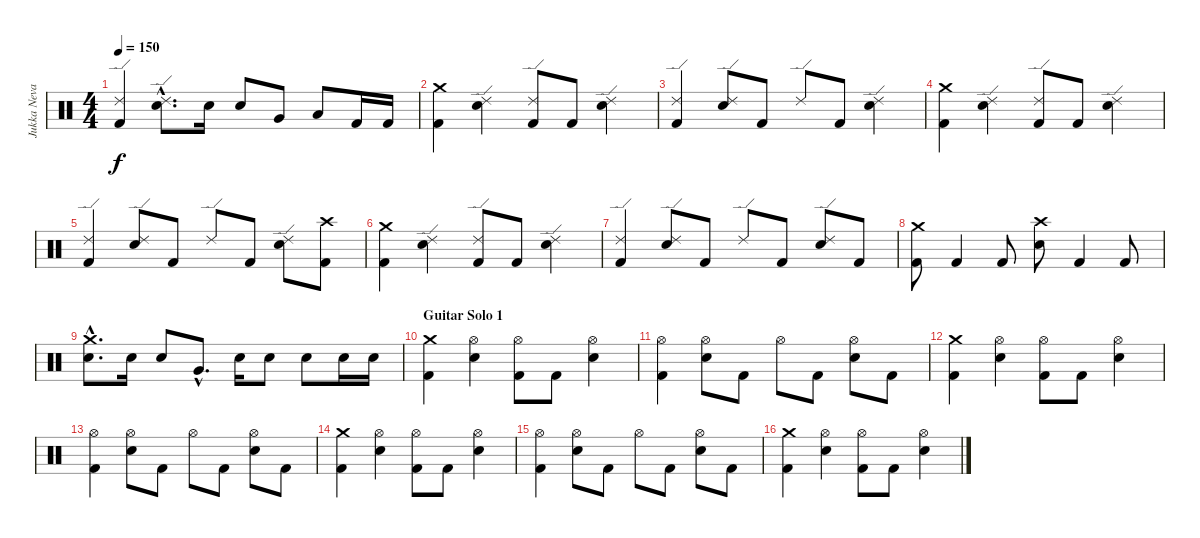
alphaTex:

\track ("Jukka Nevalainen" "Jukka Neva") {instrument percussion}
\staff {score}
\articulation defaults
\ts (4 4)
\tempo 150
\clef neutral
\ks c
("Ride (edge) 2" "Kick (hit) 2").4{dy f} ("Ride (edge) 2"{hac} "Electric Snare (hit)"{hac}).8{d} "Electric Snare (hit)".16 "Electric Snare (hit)".8 "Very Low Tom (hit)".8 "Low Floor Tom (hit)".8 "Kick (hit) 2".16 "Kick (hit) 2".16 |
("Crash medium (hit)" "Kick (hit) 2").4 ("Ride (edge) 2" "Electric Snare (hit)").4 ("Ride (edge) 2" "Kick (hit) 2").8 "Kick (hit) 2".8 ("Ride (edge) 2" "Electric Snare (hit)").4 |
("Ride (edge) 2" "Kick (hit) 2").4 ("Ride (edge) 2" "Electric Snare (hit)").8 "Kick (hit) 2".8 "Ride (edge) 2".8 "Kick (hit) 2".8 ("Ride (edge) 2" "Electric Snare (hit)").4 |
("Crash medium (hit)" "Kick (hit) 2").4 ("Ride (edge) 2" "Electric Snare (hit)").4 ("Ride (edge) 2" "Kick (hit) 2").8 "Kick (hit) 2".8 ("Ride (edge) 2" "Electric Snare (hit)").4 |
("Ride (edge) 2" "Kick (hit) 2").4 ("Ride (edge) 2" "Electric Snare (hit)").8 "Kick (hit) 2".8 "Ride (edge) 2".8 "Kick (hit) 2".8 ("Ride (edge) 2" "Electric Snare (hit)").8 ("Crash high (hit)" "Kick (hit) 2").8 |
("Crash medium (hit)" "Kick (hit) 2").4 ("Ride (edge) 2" "Electric Snare (hit)").4 ("Ride (edge) 2" "Kick (hit) 2").8 "Kick (hit) 2".8 ("Ride (edge) 2" "Electric Snare (hit)").4 |
("Ride (edge) 2" "Kick (hit) 2").4 ("Ride (edge) 2" "Electric Snare (hit)").8 "Kick (hit) 2".8 "Ride (edge) 2".8 "Kick (hit) 2".8 ("Ride (edge) 2" "Electric Snare (hit)").8 "Kick (hit) 2".8 |
("Crash medium (hit)" "Kick (hit) 2").8 "Kick (hit) 2".4 "Kick (hit) 2".8 ("Crash high (hit)" "Electric Snare (hit)").8 "Kick (hit) 2".4 "Kick (hit) 2".8 |
("Crash medium (hit)"{hac} "Electric Snare (hit)"{hac}).8{d} "Electric Snare (hit)".16 "Electric Snare (hit)".8 "Very Low Tom (hit)"{hac}.8{d} "Electric Snare (hit)".16 "Electric Snare (hit)".8 "Electric Snare (hit)".8 "Electric Snare (hit)".16 "Electric Snare (hit)".16 |
\section ("" "Guitar Solo 1")
("Crash medium (hit)" "Kick (hit) 2").4 ("Hi-Hat (open)" "Electric Snare (hit)").4 ("Hi-Hat (open)" "Kick (hit) 2").8 "Kick (hit) 2".8 ("Hi-Hat (open)" "Electric Snare (hit)").4 |
("Hi-Hat (open)" "Kick (hit) 2").4 ("Hi-Hat (open)" "Electric Snare (hit)").8 "Kick (hit) 2".8 "Hi-Hat (open)".8 "Kick (hit) 2".8 ("Hi-Hat (open)" "Electric Snare (hit)").8 "Kick (hit) 2".8 |
("Crash medium (hit)" "Kick (hit) 2").4 ("Hi-Hat (open)" "Electric Snare (hit)").4 ("Hi-Hat (open)" "Kick (hit) 2").8 "Kick (hit) 2".8 ("Hi-Hat (open)" "Electric Snare (hit)").4 |
("Hi-Hat (open)" "Kick (hit) 2").4 ("Hi-Hat (open)" "Electric Snare (hit)").8 "Kick (hit) 2".8 "Hi-Hat (open)".8 "Kick (hit) 2".8 ("Hi-Hat (open)" "Electric Snare (hit)").8 "Kick (hit) 2".8 |
("Crash medium (hit)" "Kick (hit) 2").4 ("Hi-Hat (open)" "Electric Snare (hit)").4 ("Hi-Hat (open)" "Kick (hit) 2").8 "Kick (hit) 2".8 ("Hi-Hat (open)" "Electric Snare (hit)").4 |
("Hi-Hat (open)" "Kick (hit) 2").4 ("Hi-Hat (open)" "Electric Snare (hit)").8 "Kick (hit) 2".8 "Hi-Hat (open)".8 "Kick (hit) 2".8 ("Hi-Hat (open)" "Electric Snare (hit)").8 "Kick (hit) 2".8 |
("Crash medium (hit)" "Kick (hit) 2").4 ("Hi-Hat (open)" "Electric Snare (hit)").4 ("Hi-Hat (open)" "Kick (hit) 2").8 "Kick (hit) 2".8 ("Hi-Hat (open)" "Electric Snare (hit)").4
